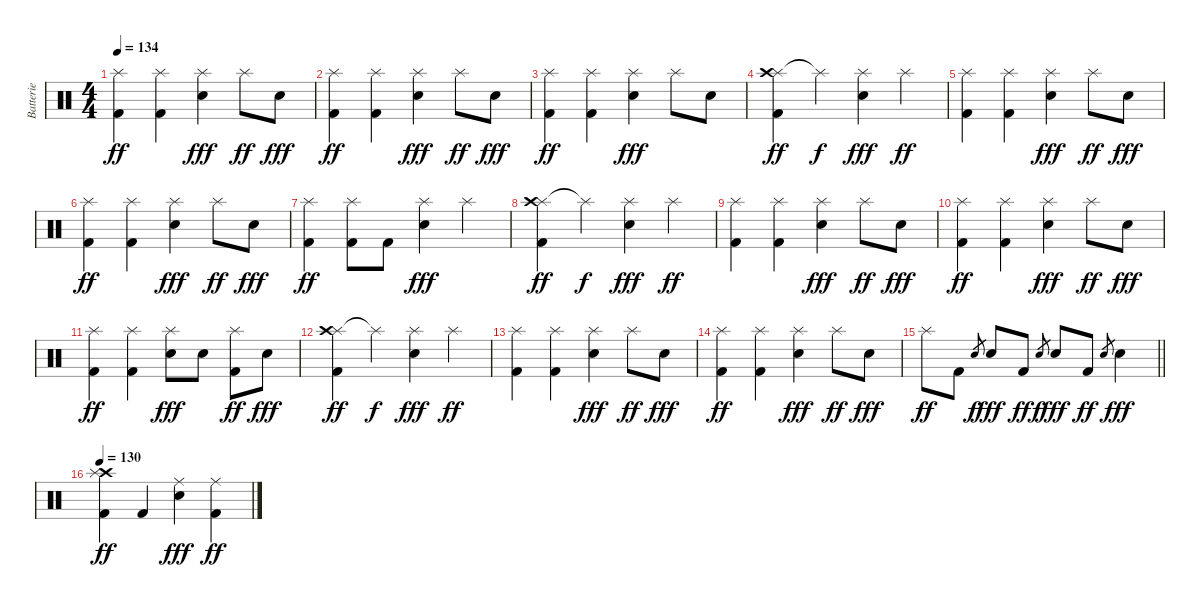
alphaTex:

\track ("Batterie" "Batterie") {instrument percussion}
\staff {score}
\articulation defaults
\ts (4 4)
\tempo 134
\clef neutral
\ks c
("Splash (hit)" "Kick (hit) 2").4{dy ff} ("Splash (hit)" "Kick (hit) 2").4 ("Splash (hit)" "Electric Snare (hit)").4{dy fff} "Splash (hit)".8{dy ff} "Electric Snare (hit)".8{dy fff} |
("Splash (hit)" "Kick (hit) 2").4{dy ff} ("Splash (hit)" "Kick (hit) 2").4 ("Splash (hit)" "Electric Snare (hit)").4{dy fff} "Splash (hit)".8{dy ff} "Electric Snare (hit)".8{dy fff} |
("Splash (hit)" "Kick (hit) 2").4{dy ff} ("Splash (hit)" "Kick (hit) 2").4 ("Splash (hit)" "Electric Snare (hit)").4{dy fff} "Splash (hit)".8 "Electric Snare (hit)".8 |
("Splash (hit)" "Crash high (hit)" "Kick (hit) 2").4{dy ff} "Splash (hit)"{t}.4{dy f} ("Splash (hit)" "Electric Snare (hit)").4{dy fff} "Splash (hit)".4{dy ff} |
("Splash (hit)" "Kick (hit) 2").4 ("Splash (hit)" "Kick (hit) 2").4 ("Splash (hit)" "Electric Snare (hit)").4{dy fff} "Splash (hit)".8{dy ff} "Electric Snare (hit)".8{dy fff} |
("Splash (hit)" "Kick (hit) 2").4{dy ff} ("Splash (hit)" "Kick (hit) 2").4 ("Splash (hit)" "Electric Snare (hit)").4{dy fff} "Splash (hit)".8{dy ff} "Electric Snare (hit)".8{dy fff} |
("Splash (hit)" "Kick (hit) 2").4{dy ff} ("Splash (hit)" "Kick (hit) 2").8 "Kick (hit) 2".8 ("Splash (hit)" "Electric Snare (hit)").4{dy fff} "Splash (hit)".4 |
("Splash (hit)" "Crash high (hit)" "Kick (hit) 2").4{dy ff} "Splash (hit)"{t}.4{dy f} ("Splash (hit)" "Electric Snare (hit)").4{dy fff} "Splash (hit)".4{dy ff} |
("Splash (hit)" "Kick (hit) 2").4 ("Splash (hit)" "Kick (hit) 2").4 ("Splash (hit)" "Electric Snare (hit)").4{dy fff} "Splash (hit)".8{dy ff} "Electric Snare (hit)".8{dy fff} |
("Splash (hit)" "Kick (hit) 2").4{dy ff} ("Splash (hit)" "Kick (hit) 2").4 ("Splash (hit)" "Electric Snare (hit)").4{dy fff} "Splash (hit)".8{dy ff} "Electric Snare (hit)".8{dy fff} |
("Splash (hit)" "Kick (hit) 2").4{dy ff} ("Splash (hit)" "Kick (hit) 2").4 ("Splash (hit)" "Electric Snare (hit)").8{dy fff} "Electric Snare (hit)".8 ("Splash (hit)" "Kick (hit) 2").8{dy ff} "Electric Snare (hit)".8{dy fff} |
("Splash (hit)" "Crash high (hit)" "Kick (hit) 2").4{dy ff} "Splash (hit)"{t}.4{dy f} ("Splash (hit)" "Electric Snare (hit)").4{dy fff} "Splash (hit)".4{dy ff} |
("Splash (hit)" "Kick (hit) 2").4 ("Splash (hit)" "Kick (hit) 2").4 ("Splash (hit)" "Electric Snare (hit)").4{dy fff} "Splash (hit)".8{dy ff} "Electric Snare (hit)".8{dy fff} |
("Splash (hit)" "Kick (hit) 2").4{dy ff} ("Splash (hit)" "Kick (hit) 2").4 ("Splash (hit)" "Electric Snare (hit)").4{dy fff} "Splash (hit)".8{dy ff} "Electric Snare (hit)".8{dy fff} |
\barLineRight lightlight "Splash (hit)".8{dy ff} "Kick (hit) 2".8 "Electric Snare (hit)".8{gr dy f} "Electric Snare (hit)".8{dy fff} "Kick (hit) 2".8{dy ff} "Electric Snare (hit)".8{gr dy f} "Electric Snare (hit)".8{dy fff} "Kick (hit) 2".8{dy ff} "Electric Snare (hit)".8{gr} "Electric Snare (hit)".4{dy fff}
|
\tempo 130
("Crash high (hit)" "Splash (hit)" "Kick (hit) 2").4{dy ff} "Kick (hit) 2".4 ("Ride (middle)" "Electric Snare (hit)").4{dy fff} ("Ride (middle)" "Kick (hit) 2").4{dy ff}
